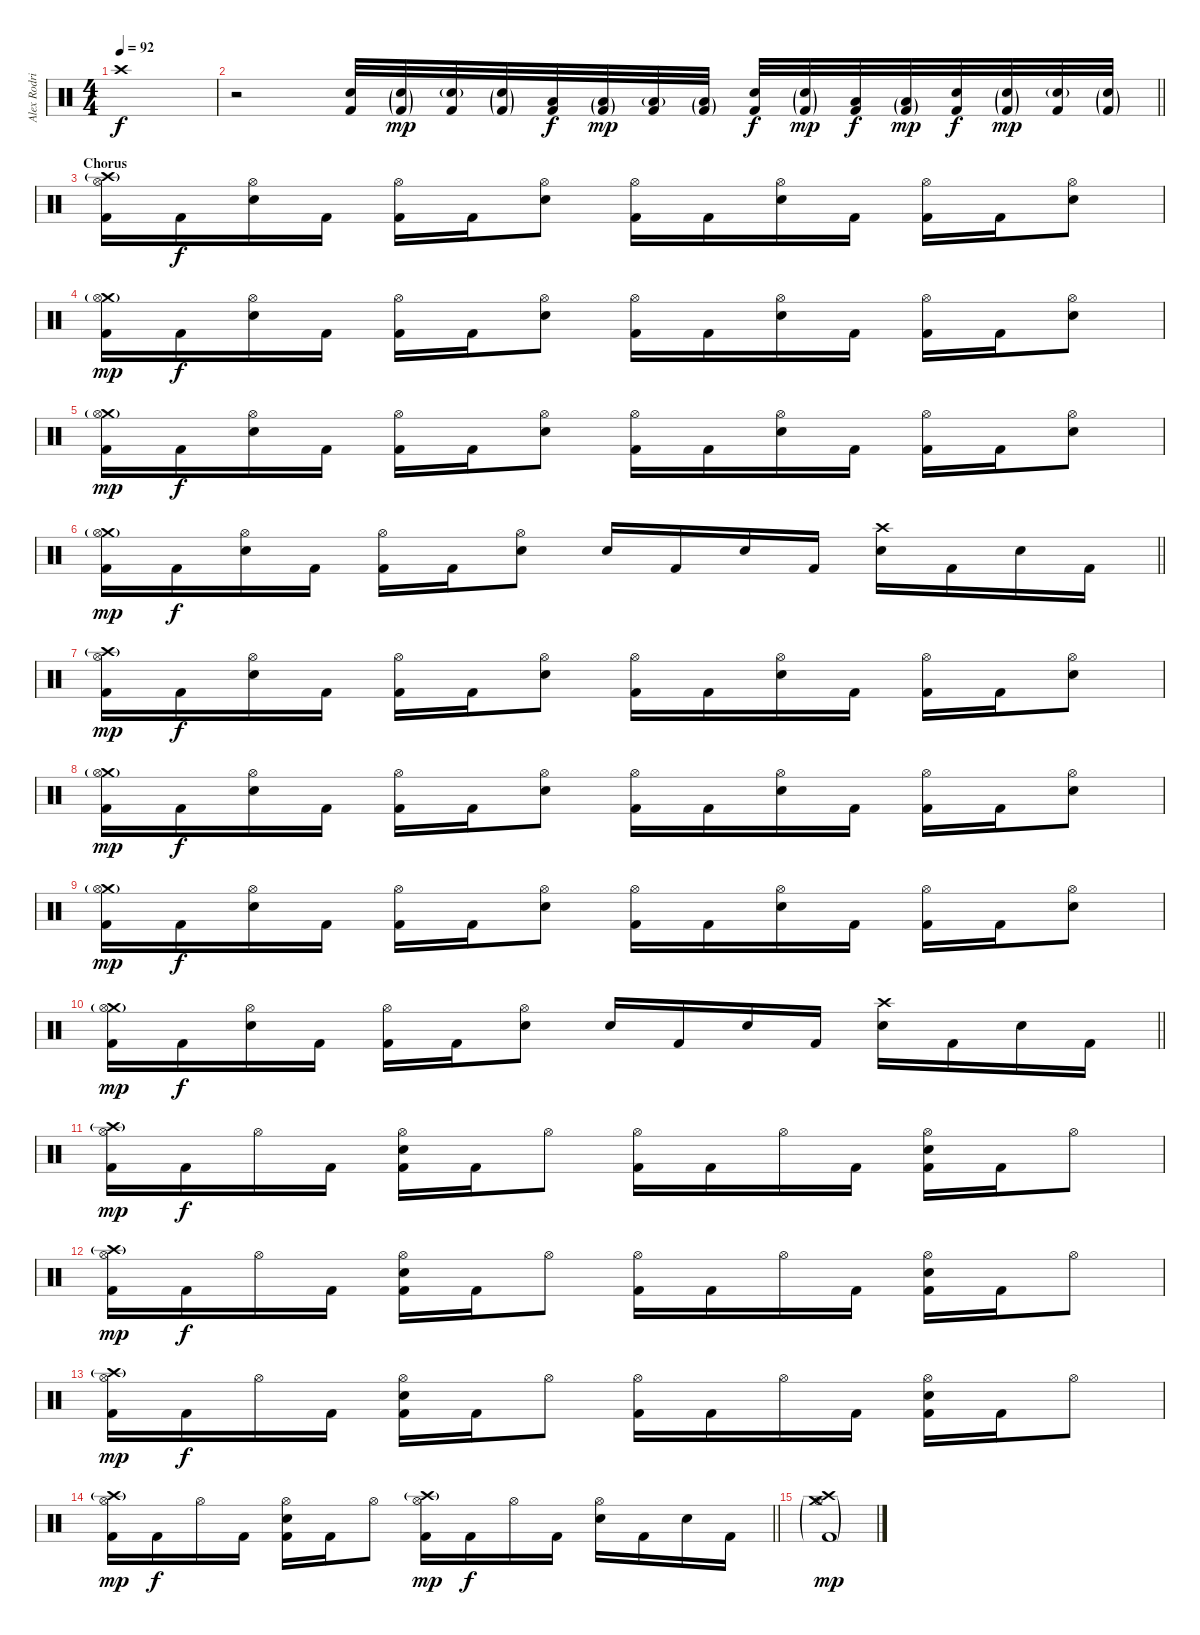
\track ("Alex Rodriguez" "Alex Rodri") {instrument percussion}
\staff {score}
\articulation defaults
\ts (4 4)
\tempo 92
\clef neutral
\ks c "Crash high (hit)".1{dy f}
|
\barLineRight lightlight
r.2 ("Electric Snare (hit)" "Kick (hit) 2").32 ("Electric Snare (hit)"{g} "Kick (hit) 2"{g}).32{dy mp} ("Electric Snare (hit)"{g} "Kick (hit) 2").32 ("Electric Snare (hit)"{g} "Kick (hit) 2"{g}).32 ("Low Tom (hit)" "Kick (hit) 2").32{dy f} ("Low Tom (hit)"{g} "Kick (hit) 2"{g}).32{dy mp} ("Low Tom (hit)"{g} "Kick (hit) 2").32 ("Low Tom (hit)"{g} "Kick (hit) 2"{g}).32 ("Electric Snare (hit)" "Kick (hit) 2").32{dy f} ("Electric Snare (hit)"{g} "Kick (hit) 2"{g}).32{dy mp} ("Low Tom (hit)" "Kick (hit) 2").32{dy f} ("Low Tom (hit)"{g} "Kick (hit) 2"{g}).32{dy mp} ("Electric Snare (hit)" "Kick (hit) 2").32{dy f} ("Electric Snare (hit)"{g} "Kick (hit) 2"{g}).32{dy mp} ("Electric Snare (hit)"{g} "Kick (hit) 2").32 ("Electric Snare (hit)"{g} "Kick (hit) 2"{g}).32 |
\section ("" "Chorus")
("Crash high (hit)"{g} "Hi-Hat (open)" "Kick (hit) 2").16 "Kick (hit) 2".16{dy f} ("Hi-Hat (open)" "Electric Snare (hit)").16 "Kick (hit) 2".16 ("Hi-Hat (open)" "Kick (hit) 2").16 "Kick (hit) 2".16 ("Hi-Hat (open)" "Electric Snare (hit)").8 ("Hi-Hat (open)" "Kick (hit) 2").16 "Kick (hit) 2".16 ("Hi-Hat (open)" "Electric Snare (hit)").16 "Kick (hit) 2".16 ("Hi-Hat (open)" "Kick (hit) 2").16 "Kick (hit) 2".16 ("Hi-Hat (open)" "Electric Snare (hit)").8 |
("Crash medium (hit)"{g} "Hi-Hat (open)" "Kick (hit) 2").16{dy mp} "Kick (hit) 2".16{dy f} ("Hi-Hat (open)" "Electric Snare (hit)").16 "Kick (hit) 2".16 ("Hi-Hat (open)" "Kick (hit) 2").16 "Kick (hit) 2".16 ("Hi-Hat (open)" "Electric Snare (hit)").8 ("Hi-Hat (open)" "Kick (hit) 2").16 "Kick (hit) 2".16 ("Hi-Hat (open)" "Electric Snare (hit)").16 "Kick (hit) 2".16 ("Hi-Hat (open)" "Kick (hit) 2").16 "Kick (hit) 2".16 ("Hi-Hat (open)" "Electric Snare (hit)").8 |
("Crash medium (hit)"{g} "Hi-Hat (open)" "Kick (hit) 2").16{dy mp} "Kick (hit) 2".16{dy f} ("Hi-Hat (open)" "Electric Snare (hit)").16 "Kick (hit) 2".16 ("Hi-Hat (open)" "Kick (hit) 2").16 "Kick (hit) 2".16 ("Hi-Hat (open)" "Electric Snare (hit)").8 ("Hi-Hat (open)" "Kick (hit) 2").16 "Kick (hit) 2".16 ("Hi-Hat (open)" "Electric Snare (hit)").16 "Kick (hit) 2".16 ("Hi-Hat (open)" "Kick (hit) 2").16 "Kick (hit) 2".16 ("Hi-Hat (open)" "Electric Snare (hit)").8 |
\barLineRight lightlight
("Crash medium (hit)"{g} "Hi-Hat (open)" "Kick (hit) 2").16{dy mp} "Kick (hit) 2".16{dy f} ("Hi-Hat (open)" "Electric Snare (hit)").16 "Kick (hit) 2".16 ("Hi-Hat (open)" "Kick (hit) 2").16 "Kick (hit) 2".16 ("Hi-Hat (open)" "Electric Snare (hit)").8 "Electric Snare (hit)".16 "Kick (hit) 2".16 "Electric Snare (hit)".16 "Kick (hit) 2".16 ("Crash high (hit)" "Electric Snare (hit)").16 "Kick (hit) 2".16 "Electric Snare (hit)".16 "Kick (hit) 2".16 |
("Crash high (hit)"{g} "Hi-Hat (open)" "Kick (hit) 2").16{dy mp} "Kick (hit) 2".16{dy f} ("Hi-Hat (open)" "Electric Snare (hit)").16 "Kick (hit) 2".16 ("Hi-Hat (open)" "Kick (hit) 2").16 "Kick (hit) 2".16 ("Hi-Hat (open)" "Electric Snare (hit)").8 ("Hi-Hat (open)" "Kick (hit) 2").16 "Kick (hit) 2".16 ("Hi-Hat (open)" "Electric Snare (hit)").16 "Kick (hit) 2".16 ("Hi-Hat (open)" "Kick (hit) 2").16 "Kick (hit) 2".16 ("Hi-Hat (open)" "Electric Snare (hit)").8 |
("Crash medium (hit)"{g} "Hi-Hat (open)" "Kick (hit) 2").16{dy mp} "Kick (hit) 2".16{dy f} ("Hi-Hat (open)" "Electric Snare (hit)").16 "Kick (hit) 2".16 ("Hi-Hat (open)" "Kick (hit) 2").16 "Kick (hit) 2".16 ("Hi-Hat (open)" "Electric Snare (hit)").8 ("Hi-Hat (open)" "Kick (hit) 2").16 "Kick (hit) 2".16 ("Hi-Hat (open)" "Electric Snare (hit)").16 "Kick (hit) 2".16 ("Hi-Hat (open)" "Kick (hit) 2").16 "Kick (hit) 2".16 ("Hi-Hat (open)" "Electric Snare (hit)").8 |
("Crash medium (hit)"{g} "Hi-Hat (open)" "Kick (hit) 2").16{dy mp} "Kick (hit) 2".16{dy f} ("Hi-Hat (open)" "Electric Snare (hit)").16 "Kick (hit) 2".16 ("Hi-Hat (open)" "Kick (hit) 2").16 "Kick (hit) 2".16 ("Hi-Hat (open)" "Electric Snare (hit)").8 ("Hi-Hat (open)" "Kick (hit) 2").16 "Kick (hit) 2".16 ("Hi-Hat (open)" "Electric Snare (hit)").16 "Kick (hit) 2".16 ("Hi-Hat (open)" "Kick (hit) 2").16 "Kick (hit) 2".16 ("Hi-Hat (open)" "Electric Snare (hit)").8 |
\barLineRight lightlight
("Crash medium (hit)"{g} "Hi-Hat (open)" "Kick (hit) 2").16{dy mp} "Kick (hit) 2".16{dy f} ("Hi-Hat (open)" "Electric Snare (hit)").16 "Kick (hit) 2".16 ("Hi-Hat (open)" "Kick (hit) 2").16 "Kick (hit) 2".16 ("Hi-Hat (open)" "Electric Snare (hit)").8 "Electric Snare (hit)".16 "Kick (hit) 2".16 "Electric Snare (hit)".16 "Kick (hit) 2".16 ("Crash high (hit)" "Electric Snare (hit)").16 "Kick (hit) 2".16 "Electric Snare (hit)".16 "Kick (hit) 2".16 |
("Crash high (hit)"{g} "Hi-Hat (open)" "Kick (hit) 2").16{dy mp} "Kick (hit) 2".16{dy f} "Hi-Hat (open)".16 "Kick (hit) 2".16 ("Hi-Hat (open)" "Electric Snare (hit)" "Kick (hit) 2").16 "Kick (hit) 2".16 "Hi-Hat (open)".8 ("Hi-Hat (open)" "Kick (hit) 2").16 "Kick (hit) 2".16 "Hi-Hat (open)".16 "Kick (hit) 2".16 ("Hi-Hat (open)" "Electric Snare (hit)" "Kick (hit) 2").16 "Kick (hit) 2".16 "Hi-Hat (open)".8 |
("Crash high (hit)"{g} "Hi-Hat (open)" "Kick (hit) 2").16{dy mp} "Kick (hit) 2".16{dy f} "Hi-Hat (open)".16 "Kick (hit) 2".16 ("Hi-Hat (open)" "Electric Snare (hit)" "Kick (hit) 2").16 "Kick (hit) 2".16 "Hi-Hat (open)".8 ("Hi-Hat (open)" "Kick (hit) 2").16 "Kick (hit) 2".16 "Hi-Hat (open)".16 "Kick (hit) 2".16 ("Hi-Hat (open)" "Electric Snare (hit)" "Kick (hit) 2").16 "Kick (hit) 2".16 "Hi-Hat (open)".8 |
("Crash high (hit)"{g} "Hi-Hat (open)" "Kick (hit) 2").16{dy mp} "Kick (hit) 2".16{dy f} "Hi-Hat (open)".16 "Kick (hit) 2".16 ("Hi-Hat (open)" "Electric Snare (hit)" "Kick (hit) 2").16 "Kick (hit) 2".16 "Hi-Hat (open)".8 ("Hi-Hat (open)" "Kick (hit) 2").16 "Kick (hit) 2".16 "Hi-Hat (open)".16 "Kick (hit) 2".16 ("Hi-Hat (open)" "Electric Snare (hit)" "Kick (hit) 2").16 "Kick (hit) 2".16 "Hi-Hat (open)".8 |
\barLineRight lightlight
("Crash high (hit)"{g} "Hi-Hat (open)" "Kick (hit) 2").16{dy mp} "Kick (hit) 2".16{dy f} "Hi-Hat (open)".16 "Kick (hit) 2".16 ("Hi-Hat (open)" "Electric Snare (hit)" "Kick (hit) 2").16 "Kick (hit) 2".16 "Hi-Hat (open)".8 ("Crash high (hit)"{g} "Hi-Hat (open)" "Kick (hit) 2").16{dy mp} "Kick (hit) 2".16{dy f} "Hi-Hat (open)".16 "Kick (hit) 2".16 ("Hi-Hat (open)" "Electric Snare (hit)").16 "Kick (hit) 2".16 "Electric Snare (hit)".16 "Kick (hit) 2".16 |
("Crash medium (hit)" "Crash high (hit)" "Hi-Hat (open)"{g} "Kick (hit) 2"{g}).1{dy mp}
